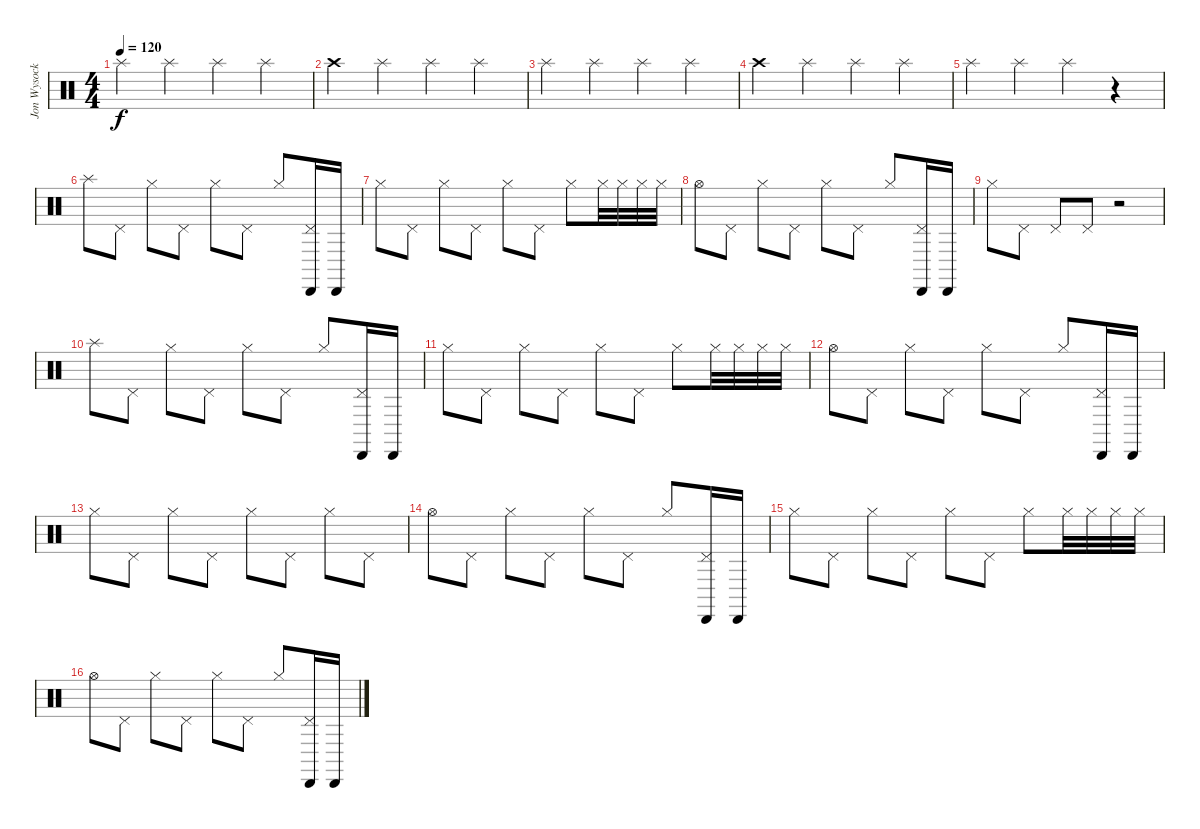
\track ("Jon Wysocki cymbals" "Jon Wysock") {instrument percussion}
\staff {score}
\articulation defaults
\ts (4 4)
\tempo 120
\clef neutral
\ks c "Splash (hit)".4{dy f} "Splash (hit)".4 "Splash (hit)".4 "Splash (hit)".4
|
"Crash high (hit)".4 "Splash (hit)".4 "Splash (hit)".4 "Splash (hit)".4 |
"Splash (hit)".4 "Splash (hit)".4 "Splash (hit)".4 "Splash (hit)".4 |
"Crash high (hit)".4 "Splash (hit)".4 "Splash (hit)".4 "Splash (hit)".4 |
"Splash (hit)".4 "Splash (hit)".4 "Splash (hit)".4 r.4 |
"Splash (hit)".8 "Pedal Hi-Hat (hit)".8 "Hi-Hat (closed)".8 "Pedal Hi-Hat (hit)".8 "Hi-Hat (closed)".8 "Pedal Hi-Hat (hit)".8 "Hi-Hat (closed)".8 ("Cabasa (hit)" "Pedal Hi-Hat (hit)").16 "Cabasa (hit)".16 |
"Hi-Hat (closed)".8 "Pedal Hi-Hat (hit)".8 "Hi-Hat (closed)".8 "Pedal Hi-Hat (hit)".8 "Hi-Hat (closed)".8 "Pedal Hi-Hat (hit)".8 "Hi-Hat (closed)".8 "Hi-Hat (closed)".32 "Hi-Hat (closed)".32 "Hi-Hat (closed)".32 "Hi-Hat (closed)".32 |
"Hi-Hat (open)".8 "Pedal Hi-Hat (hit)".8 "Hi-Hat (closed)".8 "Pedal Hi-Hat (hit)".8 "Hi-Hat (closed)".8 "Pedal Hi-Hat (hit)".8 "Hi-Hat (closed)".8 ("Cabasa (hit)" "Pedal Hi-Hat (hit)").16 "Cabasa (hit)".16 |
"Hi-Hat (closed)".8 "Pedal Hi-Hat (hit)".8 "Pedal Hi-Hat (hit)".8 "Pedal Hi-Hat (hit)".8 r.2 |
"Splash (hit)".8 "Pedal Hi-Hat (hit)".8 "Hi-Hat (closed)".8 "Pedal Hi-Hat (hit)".8 "Hi-Hat (closed)".8 "Pedal Hi-Hat (hit)".8 "Hi-Hat (closed)".8 ("Cabasa (hit)" "Pedal Hi-Hat (hit)").16 "Cabasa (hit)".16 |
"Hi-Hat (closed)".8 "Pedal Hi-Hat (hit)".8 "Hi-Hat (closed)".8 "Pedal Hi-Hat (hit)".8 "Hi-Hat (closed)".8 "Pedal Hi-Hat (hit)".8 "Hi-Hat (closed)".8 "Hi-Hat (closed)".32 "Hi-Hat (closed)".32 "Hi-Hat (closed)".32 "Hi-Hat (closed)".32 |
"Hi-Hat (open)".8 "Pedal Hi-Hat (hit)".8 "Hi-Hat (closed)".8 "Pedal Hi-Hat (hit)".8 "Hi-Hat (closed)".8 "Pedal Hi-Hat (hit)".8 "Hi-Hat (closed)".8 ("Cabasa (hit)" "Pedal Hi-Hat (hit)").16 "Cabasa (hit)".16 |
"Hi-Hat (closed)".8 "Pedal Hi-Hat (hit)".8 "Hi-Hat (closed)".8 "Pedal Hi-Hat (hit)".8 "Hi-Hat (closed)".8 "Pedal Hi-Hat (hit)".8 "Hi-Hat (closed)".8 "Pedal Hi-Hat (hit)".8 |
"Hi-Hat (open)".8 "Pedal Hi-Hat (hit)".8 "Hi-Hat (closed)".8 "Pedal Hi-Hat (hit)".8 "Hi-Hat (closed)".8 "Pedal Hi-Hat (hit)".8 "Hi-Hat (closed)".8 ("Cabasa (hit)" "Pedal Hi-Hat (hit)").16 "Cabasa (hit)".16 |
"Hi-Hat (closed)".8 "Pedal Hi-Hat (hit)".8 "Hi-Hat (closed)".8 "Pedal Hi-Hat (hit)".8 "Hi-Hat (closed)".8 "Pedal Hi-Hat (hit)".8 "Hi-Hat (closed)".8 "Hi-Hat (closed)".32 "Hi-Hat (closed)".32 "Hi-Hat (closed)".32 "Hi-Hat (closed)".32 |
"Hi-Hat (open)".8 "Pedal Hi-Hat (hit)".8 "Hi-Hat (closed)".8 "Pedal Hi-Hat (hit)".8 "Hi-Hat (closed)".8 "Pedal Hi-Hat (hit)".8 "Hi-Hat (closed)".8 ("Cabasa (hit)" "Pedal Hi-Hat (hit)").16 "Cabasa (hit)".16
